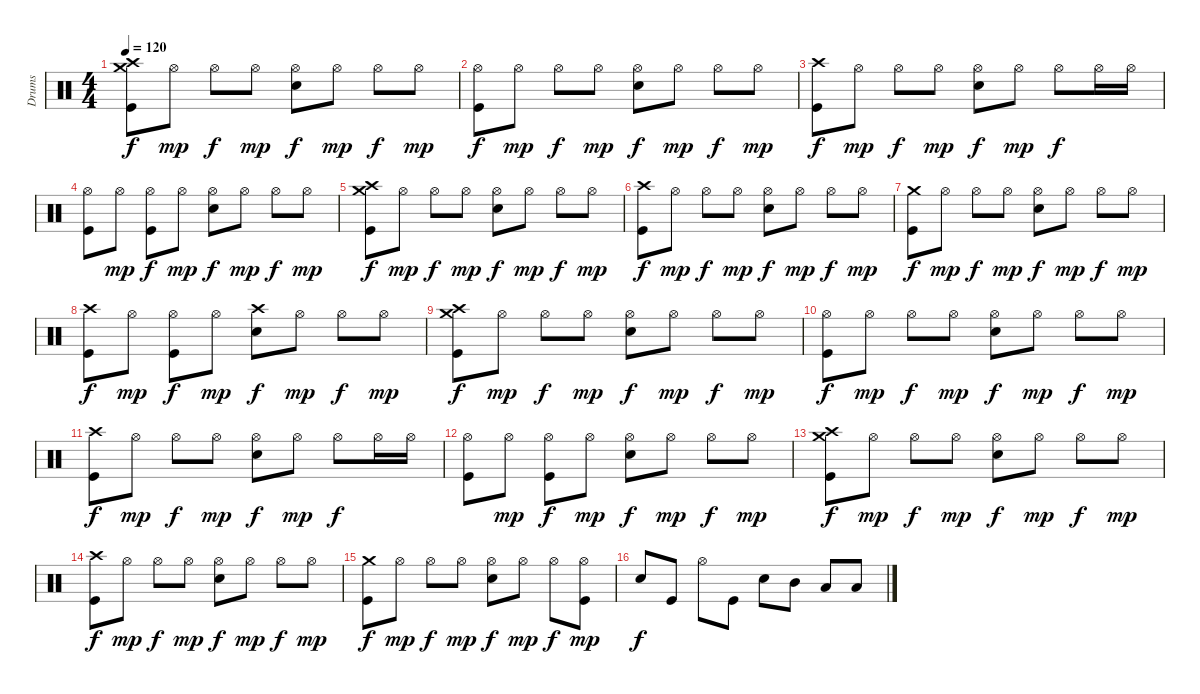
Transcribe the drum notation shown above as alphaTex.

\track ("Drums" "Drums") {instrument percussion}
\staff {score}
\articulation defaults
\ts (4 4)
\tempo 120
\clef neutral
\ks c
("Kick (hit)" "Crash high (hit)" "Crash medium (hit)").8{dy f} "Hi-Hat (open)".8{dy mp} "Hi-Hat (open)".8{dy f} "Hi-Hat (open)".8{dy mp} ("Snare (hit) 2" "Hi-Hat (open)").8{dy f} "Hi-Hat (open)".8{dy mp} "Hi-Hat (open)".8{dy f} "Hi-Hat (open)".8{dy mp} |
("Kick (hit)" "Hi-Hat (open)").8{dy f} "Hi-Hat (open)".8{dy mp} "Hi-Hat (open)".8{dy f} "Hi-Hat (open)".8{dy mp} ("Snare (hit) 2" "Hi-Hat (open)").8{dy f} "Hi-Hat (open)".8{dy mp} "Hi-Hat (open)".8{dy f} "Hi-Hat (open)".8{dy mp} |
("Kick (hit)" "Crash high (hit)").8{dy f} "Hi-Hat (open)".8{dy mp} "Hi-Hat (open)".8{dy f} "Hi-Hat (open)".8{dy mp} ("Snare (hit) 2" "Hi-Hat (open)").8{dy f} "Hi-Hat (open)".8{dy mp} "Hi-Hat (open)".8{dy f} "Hi-Hat (open)".16 "Hi-Hat (open)".16 |
("Kick (hit)" "Hi-Hat (open)").8 "Hi-Hat (open)".8{dy mp} ("Hi-Hat (open)" "Kick (hit)").8{dy f} "Hi-Hat (open)".8{dy mp} ("Hi-Hat (open)" "Snare (hit) 2").8{dy f} "Hi-Hat (open)".8{dy mp} "Hi-Hat (open)".8{dy f} "Hi-Hat (open)".8{dy mp} |
("Kick (hit)" "Crash high (hit)" "Crash medium (hit)").8{dy f} "Hi-Hat (open)".8{dy mp} "Hi-Hat (open)".8{dy f} "Hi-Hat (open)".8{dy mp} ("Snare (hit) 2" "Hi-Hat (open)").8{dy f} "Hi-Hat (open)".8{dy mp} "Hi-Hat (open)".8{dy f} "Hi-Hat (open)".8{dy mp} |
("Kick (hit)" "Crash high (hit)").8{dy f} "Hi-Hat (open)".8{dy mp} "Hi-Hat (open)".8{dy f} "Hi-Hat (open)".8{dy mp} ("Snare (hit) 2" "Hi-Hat (open)").8{dy f} "Hi-Hat (open)".8{dy mp} "Hi-Hat (open)".8{dy f} "Hi-Hat (open)".8{dy mp} |
("Kick (hit)" "Crash medium (hit)").8{dy f} "Hi-Hat (open)".8{dy mp} "Hi-Hat (open)".8{dy f} "Hi-Hat (open)".8{dy mp} ("Snare (hit) 2" "Hi-Hat (open)").8{dy f} "Hi-Hat (open)".8{dy mp} "Hi-Hat (open)".8{dy f} "Hi-Hat (open)".8{dy mp} |
("Kick (hit)" "Crash high (hit)").8{dy f} "Hi-Hat (open)".8{dy mp} ("Hi-Hat (open)" "Kick (hit)").8{dy f} "Hi-Hat (open)".8{dy mp} ("Snare (hit) 2" "Crash high (hit)").8{dy f} "Hi-Hat (open)".8{dy mp} "Hi-Hat (open)".8{dy f} "Hi-Hat (open)".8{dy mp} |
("Kick (hit)" "Crash high (hit)" "Crash medium (hit)").8{dy f} "Hi-Hat (open)".8{dy mp} "Hi-Hat (open)".8{dy f} "Hi-Hat (open)".8{dy mp} ("Snare (hit) 2" "Hi-Hat (open)").8{dy f} "Hi-Hat (open)".8{dy mp} "Hi-Hat (open)".8{dy f} "Hi-Hat (open)".8{dy mp} |
("Kick (hit)" "Hi-Hat (open)").8{dy f} "Hi-Hat (open)".8{dy mp} "Hi-Hat (open)".8{dy f} "Hi-Hat (open)".8{dy mp} ("Snare (hit) 2" "Hi-Hat (open)").8{dy f} "Hi-Hat (open)".8{dy mp} "Hi-Hat (open)".8{dy f} "Hi-Hat (open)".8{dy mp} |
("Kick (hit)" "Crash high (hit)").8{dy f} "Hi-Hat (open)".8{dy mp} "Hi-Hat (open)".8{dy f} "Hi-Hat (open)".8{dy mp} ("Snare (hit) 2" "Hi-Hat (open)").8{dy f} "Hi-Hat (open)".8{dy mp} "Hi-Hat (open)".8{dy f} "Hi-Hat (open)".16 "Hi-Hat (open)".16 |
("Kick (hit)" "Hi-Hat (open)").8 "Hi-Hat (open)".8{dy mp} ("Hi-Hat (open)" "Kick (hit)").8{dy f} "Hi-Hat (open)".8{dy mp} ("Hi-Hat (open)" "Snare (hit) 2").8{dy f} "Hi-Hat (open)".8{dy mp} "Hi-Hat (open)".8{dy f} "Hi-Hat (open)".8{dy mp} |
("Kick (hit)" "Crash high (hit)" "Crash medium (hit)").8{dy f} "Hi-Hat (open)".8{dy mp} "Hi-Hat (open)".8{dy f} "Hi-Hat (open)".8{dy mp} ("Snare (hit) 2" "Hi-Hat (open)").8{dy f} "Hi-Hat (open)".8{dy mp} "Hi-Hat (open)".8{dy f} "Hi-Hat (open)".8{dy mp} |
("Kick (hit)" "Crash high (hit)").8{dy f} "Hi-Hat (open)".8{dy mp} "Hi-Hat (open)".8{dy f} "Hi-Hat (open)".8{dy mp} ("Snare (hit) 2" "Hi-Hat (open)").8{dy f} "Hi-Hat (open)".8{dy mp} "Hi-Hat (open)".8{dy f} "Hi-Hat (open)".8{dy mp} |
("Kick (hit)" "Crash medium (hit)").8{dy f} "Hi-Hat (open)".8{dy mp} "Hi-Hat (open)".8{dy f} "Hi-Hat (open)".8{dy mp} ("Snare (hit) 2" "Hi-Hat (open)").8{dy f} "Hi-Hat (open)".8{dy mp} "Hi-Hat (open)".8{dy f} ("Kick (hit)" "Hi-Hat (open)").8{dy mp} |
"Snare (hit) 2".8{dy f} "Kick (hit)".8 "Hi-Hat (open)".8 "Kick (hit)".8 "Snare (hit) 2".8 "Mid Tom (hit)".8 "Low Tom (hit)".8 "Low Floor Tom (hit)".8
